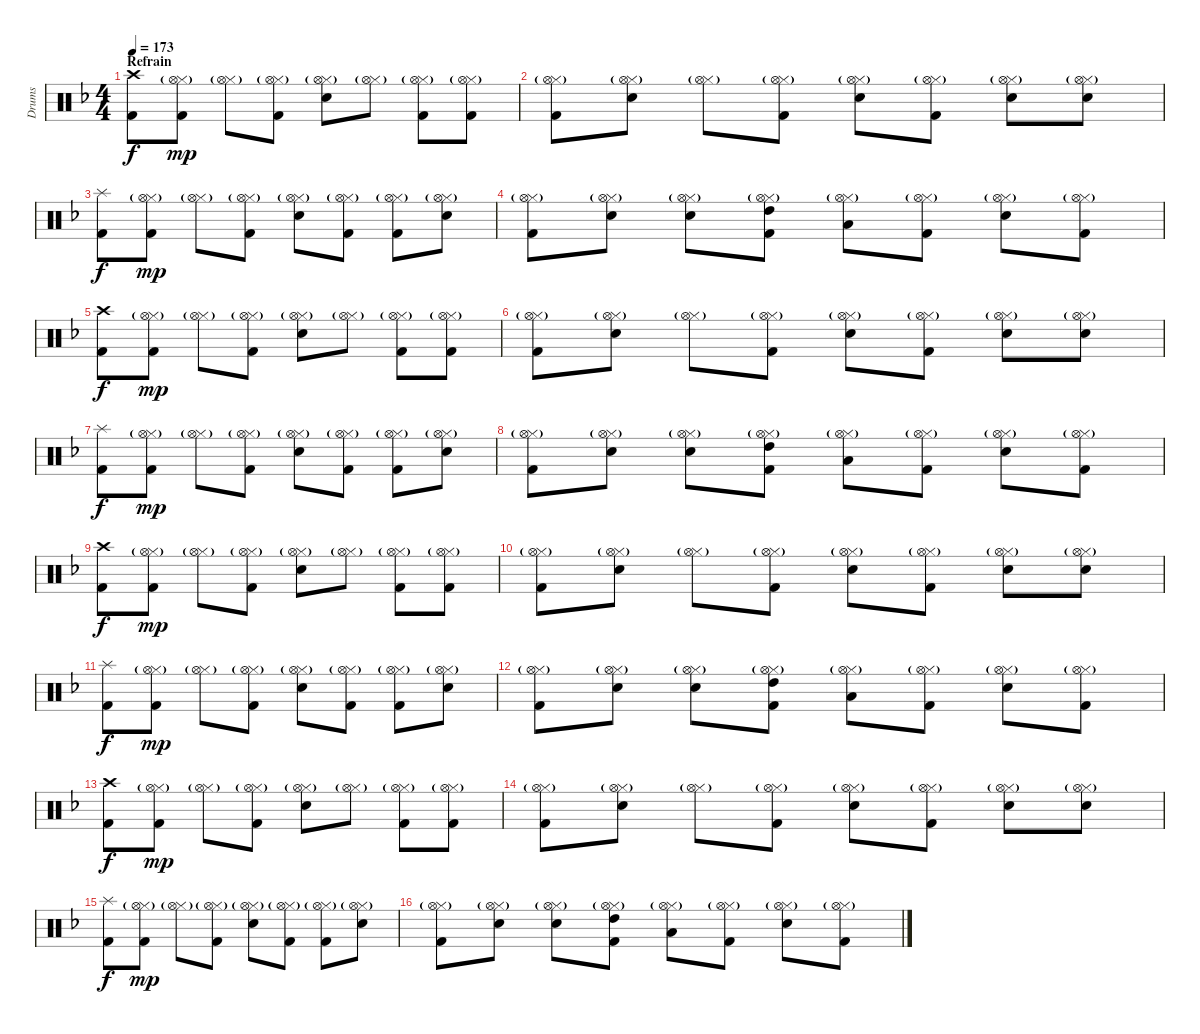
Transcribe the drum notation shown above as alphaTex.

\track ("Drums" "Drums") {instrument percussion}
\staff {score}
\articulation defaults
\ts (4 4)
\section ("" "Refrain")
\tempo 173
\clef neutral
\ks dminor
("Crash high (hit)" "Kick (hit) 2").8{dy f} ("Hi-Hat (closed)"{g} "Hi-Hat (open)"{g} "Kick (hit) 2").8{dy mp} ("Hi-Hat (closed)"{g} "Hi-Hat (open)"{g}).8 ("Hi-Hat (closed)"{g} "Hi-Hat (open)"{g} "Kick (hit) 2").8 ("Hi-Hat (closed)"{g} "Hi-Hat (open)"{g} "Snare (hit) 2").8 ("Hi-Hat (closed)"{g} "Hi-Hat (open)"{g}).8 ("Hi-Hat (closed)"{g} "Hi-Hat (open)"{g} "Kick (hit) 2").8 ("Hi-Hat (closed)"{g} "Hi-Hat (open)"{g} "Kick (hit) 2").8 |
("Hi-Hat (closed)"{g} "Hi-Hat (open)"{g} "Kick (hit) 2").8 ("Hi-Hat (closed)"{g} "Hi-Hat (open)"{g} "Snare (hit) 2").8 ("Hi-Hat (closed)"{g} "Hi-Hat (open)"{g}).8 ("Hi-Hat (closed)"{g} "Hi-Hat (open)"{g} "Kick (hit) 2").8 ("Hi-Hat (closed)"{g} "Hi-Hat (open)"{g} "Snare (hit) 2").8 ("Hi-Hat (closed)"{g} "Hi-Hat (open)"{g} "Kick (hit) 2").8 ("Hi-Hat (closed)"{g} "Hi-Hat (open)"{g} "Snare (hit) 2").8 ("Hi-Hat (closed)"{g} "Hi-Hat (open)"{g} "Snare (hit) 2").8 |
("Splash (hit)" "Kick (hit) 2").8{dy f} ("Hi-Hat (closed)"{g} "Hi-Hat (open)"{g} "Kick (hit) 2").8{dy mp} ("Hi-Hat (closed)"{g} "Hi-Hat (open)"{g}).8 ("Hi-Hat (closed)"{g} "Hi-Hat (open)"{g} "Kick (hit) 2").8 ("Hi-Hat (closed)"{g} "Hi-Hat (open)"{g} "Snare (hit) 2").8 ("Hi-Hat (closed)"{g} "Hi-Hat (open)"{g} "Kick (hit) 2").8 ("Hi-Hat (closed)"{g} "Hi-Hat (open)"{g} "Kick (hit) 2").8 ("Hi-Hat (closed)"{g} "Hi-Hat (open)"{g} "Snare (hit) 2").8 |
("Hi-Hat (closed)"{g} "Hi-Hat (open)"{g} "Kick (hit) 2").8 ("Hi-Hat (closed)"{g} "Hi-Hat (open)"{g} "Snare (hit) 2").8 ("Hi-Hat (closed)"{g} "Hi-Hat (open)"{g} "Snare (hit) 2").8 ("Hi-Hat (closed)"{g} "Hi-Hat (open)"{g} "High Tom (hit)" "Kick (hit) 2").8 ("Hi-Hat (closed)"{g} "Hi-Hat (open)"{g} "Low Tom (hit)").8 ("Hi-Hat (closed)"{g} "Hi-Hat (open)"{g} "Kick (hit) 2").8 ("Hi-Hat (closed)"{g} "Hi-Hat (open)"{g} "Snare (hit) 2").8 ("Hi-Hat (closed)"{g} "Hi-Hat (open)"{g} "Kick (hit) 2").8 |
("Crash high (hit)" "Kick (hit) 2").8{dy f} ("Hi-Hat (closed)"{g} "Hi-Hat (open)"{g} "Kick (hit) 2").8{dy mp} ("Hi-Hat (closed)"{g} "Hi-Hat (open)"{g}).8 ("Hi-Hat (closed)"{g} "Hi-Hat (open)"{g} "Kick (hit) 2").8 ("Hi-Hat (closed)"{g} "Hi-Hat (open)"{g} "Snare (hit) 2").8 ("Hi-Hat (closed)"{g} "Hi-Hat (open)"{g}).8 ("Hi-Hat (closed)"{g} "Hi-Hat (open)"{g} "Kick (hit) 2").8 ("Hi-Hat (closed)"{g} "Hi-Hat (open)"{g} "Kick (hit) 2").8 |
("Hi-Hat (closed)"{g} "Hi-Hat (open)"{g} "Kick (hit) 2").8 ("Hi-Hat (closed)"{g} "Hi-Hat (open)"{g} "Snare (hit) 2").8 ("Hi-Hat (closed)"{g} "Hi-Hat (open)"{g}).8 ("Hi-Hat (closed)"{g} "Hi-Hat (open)"{g} "Kick (hit) 2").8 ("Hi-Hat (closed)"{g} "Hi-Hat (open)"{g} "Snare (hit) 2").8 ("Hi-Hat (closed)"{g} "Hi-Hat (open)"{g} "Kick (hit) 2").8 ("Hi-Hat (closed)"{g} "Hi-Hat (open)"{g} "Snare (hit) 2").8 ("Hi-Hat (closed)"{g} "Hi-Hat (open)"{g} "Snare (hit) 2").8 |
("Splash (hit)" "Kick (hit) 2").8{dy f} ("Hi-Hat (closed)"{g} "Hi-Hat (open)"{g} "Kick (hit) 2").8{dy mp} ("Hi-Hat (closed)"{g} "Hi-Hat (open)"{g}).8 ("Hi-Hat (closed)"{g} "Hi-Hat (open)"{g} "Kick (hit) 2").8 ("Hi-Hat (closed)"{g} "Hi-Hat (open)"{g} "Snare (hit) 2").8 ("Hi-Hat (closed)"{g} "Hi-Hat (open)"{g} "Kick (hit) 2").8 ("Hi-Hat (closed)"{g} "Hi-Hat (open)"{g} "Kick (hit) 2").8 ("Hi-Hat (closed)"{g} "Hi-Hat (open)"{g} "Snare (hit) 2").8 |
("Hi-Hat (closed)"{g} "Hi-Hat (open)"{g} "Kick (hit) 2").8 ("Hi-Hat (closed)"{g} "Hi-Hat (open)"{g} "Snare (hit) 2").8 ("Hi-Hat (closed)"{g} "Hi-Hat (open)"{g} "Snare (hit) 2").8 ("Hi-Hat (closed)"{g} "Hi-Hat (open)"{g} "High Tom (hit)" "Kick (hit) 2").8 ("Hi-Hat (closed)"{g} "Hi-Hat (open)"{g} "Low Tom (hit)").8 ("Hi-Hat (closed)"{g} "Hi-Hat (open)"{g} "Kick (hit) 2").8 ("Hi-Hat (closed)"{g} "Hi-Hat (open)"{g} "Snare (hit) 2").8 ("Hi-Hat (closed)"{g} "Hi-Hat (open)"{g} "Kick (hit) 2").8 |
("Crash high (hit)" "Kick (hit) 2").8{dy f} ("Hi-Hat (closed)"{g} "Hi-Hat (open)"{g} "Kick (hit) 2").8{dy mp} ("Hi-Hat (closed)"{g} "Hi-Hat (open)"{g}).8 ("Hi-Hat (closed)"{g} "Hi-Hat (open)"{g} "Kick (hit) 2").8 ("Hi-Hat (closed)"{g} "Hi-Hat (open)"{g} "Snare (hit) 2").8 ("Hi-Hat (closed)"{g} "Hi-Hat (open)"{g}).8 ("Hi-Hat (closed)"{g} "Hi-Hat (open)"{g} "Kick (hit) 2").8 ("Hi-Hat (closed)"{g} "Hi-Hat (open)"{g} "Kick (hit) 2").8 |
("Hi-Hat (closed)"{g} "Hi-Hat (open)"{g} "Kick (hit) 2").8 ("Hi-Hat (closed)"{g} "Hi-Hat (open)"{g} "Snare (hit) 2").8 ("Hi-Hat (closed)"{g} "Hi-Hat (open)"{g}).8 ("Hi-Hat (closed)"{g} "Hi-Hat (open)"{g} "Kick (hit) 2").8 ("Hi-Hat (closed)"{g} "Hi-Hat (open)"{g} "Snare (hit) 2").8 ("Hi-Hat (closed)"{g} "Hi-Hat (open)"{g} "Kick (hit) 2").8 ("Hi-Hat (closed)"{g} "Hi-Hat (open)"{g} "Snare (hit) 2").8 ("Hi-Hat (closed)"{g} "Hi-Hat (open)"{g} "Snare (hit) 2").8 |
("Splash (hit)" "Kick (hit) 2").8{dy f} ("Hi-Hat (closed)"{g} "Hi-Hat (open)"{g} "Kick (hit) 2").8{dy mp} ("Hi-Hat (closed)"{g} "Hi-Hat (open)"{g}).8 ("Hi-Hat (closed)"{g} "Hi-Hat (open)"{g} "Kick (hit) 2").8 ("Hi-Hat (closed)"{g} "Hi-Hat (open)"{g} "Snare (hit) 2").8 ("Hi-Hat (closed)"{g} "Hi-Hat (open)"{g} "Kick (hit) 2").8 ("Hi-Hat (closed)"{g} "Hi-Hat (open)"{g} "Kick (hit) 2").8 ("Hi-Hat (closed)"{g} "Hi-Hat (open)"{g} "Snare (hit) 2").8 |
("Hi-Hat (closed)"{g} "Hi-Hat (open)"{g} "Kick (hit) 2").8 ("Hi-Hat (closed)"{g} "Hi-Hat (open)"{g} "Snare (hit) 2").8 ("Hi-Hat (closed)"{g} "Hi-Hat (open)"{g} "Snare (hit) 2").8 ("Hi-Hat (closed)"{g} "Hi-Hat (open)"{g} "High Tom (hit)" "Kick (hit) 2").8 ("Hi-Hat (closed)"{g} "Hi-Hat (open)"{g} "Low Tom (hit)").8 ("Hi-Hat (closed)"{g} "Hi-Hat (open)"{g} "Kick (hit) 2").8 ("Hi-Hat (closed)"{g} "Hi-Hat (open)"{g} "Snare (hit) 2").8 ("Hi-Hat (closed)"{g} "Hi-Hat (open)"{g} "Kick (hit) 2").8 |
("Crash high (hit)" "Kick (hit) 2").8{dy f} ("Hi-Hat (closed)"{g} "Hi-Hat (open)"{g} "Kick (hit) 2").8{dy mp} ("Hi-Hat (closed)"{g} "Hi-Hat (open)"{g}).8 ("Hi-Hat (closed)"{g} "Hi-Hat (open)"{g} "Kick (hit) 2").8 ("Hi-Hat (closed)"{g} "Hi-Hat (open)"{g} "Snare (hit) 2").8 ("Hi-Hat (closed)"{g} "Hi-Hat (open)"{g}).8 ("Hi-Hat (closed)"{g} "Hi-Hat (open)"{g} "Kick (hit) 2").8 ("Hi-Hat (closed)"{g} "Hi-Hat (open)"{g} "Kick (hit) 2").8 |
("Hi-Hat (closed)"{g} "Hi-Hat (open)"{g} "Kick (hit) 2").8 ("Hi-Hat (closed)"{g} "Hi-Hat (open)"{g} "Snare (hit) 2").8 ("Hi-Hat (closed)"{g} "Hi-Hat (open)"{g}).8 ("Hi-Hat (closed)"{g} "Hi-Hat (open)"{g} "Kick (hit) 2").8 ("Hi-Hat (closed)"{g} "Hi-Hat (open)"{g} "Snare (hit) 2").8 ("Hi-Hat (closed)"{g} "Hi-Hat (open)"{g} "Kick (hit) 2").8 ("Hi-Hat (closed)"{g} "Hi-Hat (open)"{g} "Snare (hit) 2").8 ("Hi-Hat (closed)"{g} "Hi-Hat (open)"{g} "Snare (hit) 2").8 |
("Splash (hit)" "Kick (hit) 2").8{dy f} ("Hi-Hat (closed)"{g} "Hi-Hat (open)"{g} "Kick (hit) 2").8{dy mp} ("Hi-Hat (closed)"{g} "Hi-Hat (open)"{g}).8 ("Hi-Hat (closed)"{g} "Hi-Hat (open)"{g} "Kick (hit) 2").8 ("Hi-Hat (closed)"{g} "Hi-Hat (open)"{g} "Snare (hit) 2").8 ("Hi-Hat (closed)"{g} "Hi-Hat (open)"{g} "Kick (hit) 2").8 ("Hi-Hat (closed)"{g} "Hi-Hat (open)"{g} "Kick (hit) 2").8 ("Hi-Hat (closed)"{g} "Hi-Hat (open)"{g} "Snare (hit) 2").8 |
("Hi-Hat (closed)"{g} "Hi-Hat (open)"{g} "Kick (hit) 2").8 ("Hi-Hat (closed)"{g} "Hi-Hat (open)"{g} "Snare (hit) 2").8 ("Hi-Hat (closed)"{g} "Hi-Hat (open)"{g} "Snare (hit) 2").8 ("Hi-Hat (closed)"{g} "Hi-Hat (open)"{g} "High Tom (hit)" "Kick (hit) 2").8 ("Hi-Hat (closed)"{g} "Hi-Hat (open)"{g} "Low Tom (hit)").8 ("Hi-Hat (closed)"{g} "Hi-Hat (open)"{g} "Kick (hit) 2").8 ("Hi-Hat (closed)"{g} "Hi-Hat (open)"{g} "Snare (hit) 2").8 ("Hi-Hat (closed)"{g} "Hi-Hat (open)"{g} "Kick (hit) 2").8
